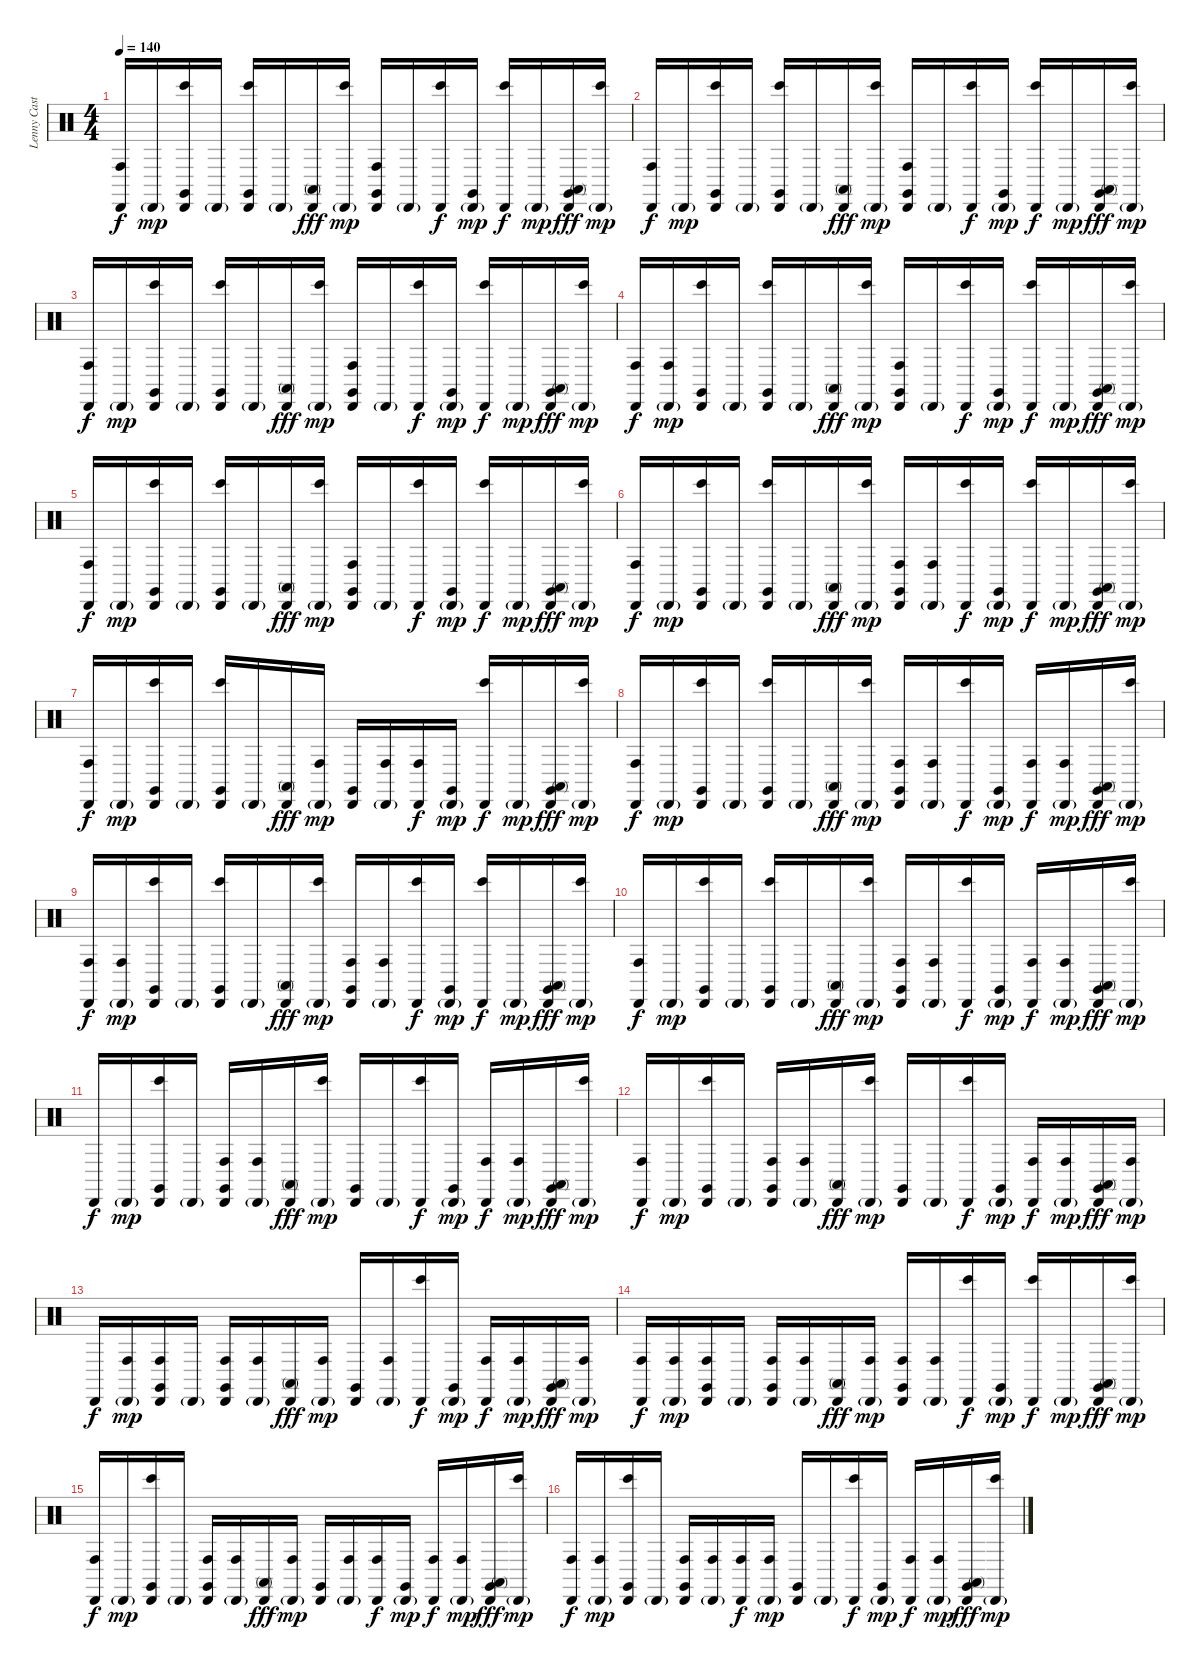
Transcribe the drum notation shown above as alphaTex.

\track ("Lenny Castro - Percussion" "Lenny Cast") {instrument percussion}
\staff {score}
\articulation defaults
\ts (4 4)
\tempo 140
\clef neutral
\ks c
("Cabasa (hit)" "Conga high (hit)").16{dy f} "Cabasa (hit)"{g}.16{dy mp} ("Claves (hit)" "Cabasa (hit)" "Bongo High (hit)").16 "Cabasa (hit)"{g}.16 ("Claves (hit)" "Cabasa (hit)" "Bongo High (hit)").16 "Cabasa (hit)"{g}.16 ("Cabasa (hit)" "Conga high (mute)").16{dy fff} ("Cabasa (hit)"{g} "Bongo High (hit)").16{dy mp} ("Claves (hit)" "Cabasa (hit)" "Conga high (hit)").16 "Cabasa (hit)"{g}.16 ("Cabasa (hit)" "Bongo High (hit)").16{dy f} ("Claves (hit)" "Cabasa (hit)"{g}).16{dy mp} ("Cabasa (hit)" "Bongo High (hit)").16{dy f} "Cabasa (hit)"{g}.16{dy mp} ("Claves (hit)" "Cabasa (hit)" "Conga high (mute)").16{dy fff} ("Cabasa (hit)"{g} "Bongo High (hit)").16{dy mp} |
("Cabasa (hit)" "Conga high (hit)").16{dy f} "Cabasa (hit)"{g}.16{dy mp} ("Claves (hit)" "Cabasa (hit)" "Bongo High (hit)").16 "Cabasa (hit)"{g}.16 ("Claves (hit)" "Cabasa (hit)" "Bongo High (hit)").16 "Cabasa (hit)"{g}.16 ("Cabasa (hit)" "Conga high (mute)").16{dy fff} ("Cabasa (hit)"{g} "Bongo High (hit)").16{dy mp} ("Claves (hit)" "Cabasa (hit)" "Conga high (hit)").16 "Cabasa (hit)"{g}.16 ("Cabasa (hit)" "Bongo High (hit)").16{dy f} ("Claves (hit)" "Cabasa (hit)"{g}).16{dy mp} ("Cabasa (hit)" "Bongo High (hit)").16{dy f} "Cabasa (hit)"{g}.16{dy mp} ("Claves (hit)" "Cabasa (hit)" "Conga high (mute)").16{dy fff} ("Cabasa (hit)"{g} "Bongo High (hit)").16{dy mp} |
("Cabasa (hit)" "Conga high (hit)").16{dy f} "Cabasa (hit)"{g}.16{dy mp} ("Claves (hit)" "Cabasa (hit)" "Bongo High (hit)").16 "Cabasa (hit)"{g}.16 ("Claves (hit)" "Cabasa (hit)" "Bongo High (hit)").16 "Cabasa (hit)"{g}.16 ("Cabasa (hit)" "Conga high (mute)").16{dy fff} ("Cabasa (hit)"{g} "Bongo High (hit)").16{dy mp} ("Claves (hit)" "Cabasa (hit)" "Conga high (hit)").16 "Cabasa (hit)"{g}.16 ("Cabasa (hit)" "Bongo High (hit)").16{dy f} ("Claves (hit)" "Cabasa (hit)"{g}).16{dy mp} ("Cabasa (hit)" "Bongo High (hit)").16{dy f} "Cabasa (hit)"{g}.16{dy mp} ("Claves (hit)" "Cabasa (hit)" "Conga high (mute)").16{dy fff} ("Cabasa (hit)"{g} "Bongo High (hit)").16{dy mp} |
("Cabasa (hit)" "Conga high (hit)").16{dy f} ("Cabasa (hit)"{g} "Conga high (hit)").16{dy mp} ("Claves (hit)" "Cabasa (hit)" "Bongo High (hit)").16 "Cabasa (hit)"{g}.16 ("Claves (hit)" "Cabasa (hit)" "Bongo High (hit)").16 "Cabasa (hit)"{g}.16 ("Cabasa (hit)" "Conga high (mute)").16{dy fff} ("Cabasa (hit)"{g} "Bongo High (hit)").16{dy mp} ("Claves (hit)" "Cabasa (hit)" "Conga high (hit)").16 "Cabasa (hit)"{g}.16 ("Cabasa (hit)" "Bongo High (hit)").16{dy f} ("Claves (hit)" "Cabasa (hit)"{g}).16{dy mp} ("Cabasa (hit)" "Bongo High (hit)").16{dy f} "Cabasa (hit)"{g}.16{dy mp} ("Claves (hit)" "Cabasa (hit)" "Conga high (mute)").16{dy fff} ("Cabasa (hit)"{g} "Bongo High (hit)").16{dy mp} |
("Cabasa (hit)" "Conga high (hit)").16{dy f} "Cabasa (hit)"{g}.16{dy mp} ("Claves (hit)" "Cabasa (hit)" "Bongo High (hit)").16 "Cabasa (hit)"{g}.16 ("Claves (hit)" "Cabasa (hit)" "Bongo High (hit)").16 "Cabasa (hit)"{g}.16 ("Cabasa (hit)" "Conga high (mute)").16{dy fff} ("Cabasa (hit)"{g} "Bongo High (hit)").16{dy mp} ("Claves (hit)" "Cabasa (hit)" "Conga high (hit)").16 "Cabasa (hit)"{g}.16 ("Cabasa (hit)" "Bongo High (hit)").16{dy f} ("Claves (hit)" "Cabasa (hit)"{g}).16{dy mp} ("Cabasa (hit)" "Bongo High (hit)").16{dy f} "Cabasa (hit)"{g}.16{dy mp} ("Claves (hit)" "Cabasa (hit)" "Conga high (mute)").16{dy fff} ("Cabasa (hit)"{g} "Bongo High (hit)").16{dy mp} |
("Cabasa (hit)" "Conga high (hit)").16{dy f} "Cabasa (hit)"{g}.16{dy mp} ("Claves (hit)" "Cabasa (hit)" "Bongo High (hit)").16 "Cabasa (hit)"{g}.16 ("Claves (hit)" "Cabasa (hit)" "Bongo High (hit)").16 "Cabasa (hit)"{g}.16 ("Cabasa (hit)" "Conga high (mute)").16{dy fff} ("Cabasa (hit)"{g} "Bongo High (hit)").16{dy mp} ("Claves (hit)" "Cabasa (hit)" "Conga high (hit)").16 ("Cabasa (hit)"{g} "Conga high (hit)").16 ("Cabasa (hit)" "Bongo High (hit)").16{dy f} ("Claves (hit)" "Cabasa (hit)"{g}).16{dy mp} ("Cabasa (hit)" "Bongo High (hit)").16{dy f} "Cabasa (hit)"{g}.16{dy mp} ("Claves (hit)" "Cabasa (hit)" "Conga high (mute)").16{dy fff} ("Cabasa (hit)"{g} "Bongo High (hit)").16{dy mp} |
("Cabasa (hit)" "Conga high (hit)").16{dy f} "Cabasa (hit)"{g}.16{dy mp} ("Claves (hit)" "Cabasa (hit)" "Bongo High (hit)").16 "Cabasa (hit)"{g}.16 ("Claves (hit)" "Cabasa (hit)" "Bongo High (hit)").16 "Cabasa (hit)"{g}.16 ("Cabasa (hit)" "Conga high (mute)").16{dy fff} ("Cabasa (hit)"{g} "Conga high (hit)").16{dy mp} ("Claves (hit)" "Cabasa (hit)").16 ("Cabasa (hit)"{g} "Conga high (hit)").16 ("Cabasa (hit)" "Conga high (hit)").16{dy f} ("Claves (hit)" "Cabasa (hit)"{g}).16{dy mp} ("Cabasa (hit)" "Bongo High (hit)").16{dy f} "Cabasa (hit)"{g}.16{dy mp} ("Claves (hit)" "Cabasa (hit)" "Conga high (mute)").16{dy fff} ("Cabasa (hit)"{g} "Bongo High (hit)").16{dy mp} |
("Cabasa (hit)" "Conga high (hit)").16{dy f} "Cabasa (hit)"{g}.16{dy mp} ("Claves (hit)" "Cabasa (hit)" "Bongo High (hit)").16 "Cabasa (hit)"{g}.16 ("Claves (hit)" "Cabasa (hit)" "Bongo High (hit)").16 "Cabasa (hit)"{g}.16 ("Cabasa (hit)" "Conga high (mute)").16{dy fff} ("Cabasa (hit)"{g} "Bongo High (hit)").16{dy mp} ("Claves (hit)" "Cabasa (hit)" "Conga high (hit)").16 ("Cabasa (hit)"{g} "Conga high (hit)").16 ("Cabasa (hit)" "Bongo High (hit)").16{dy f} ("Claves (hit)" "Cabasa (hit)"{g}).16{dy mp} ("Cabasa (hit)" "Conga high (hit)").16{dy f} ("Cabasa (hit)"{g} "Conga high (hit)").16{dy mp} ("Claves (hit)" "Cabasa (hit)" "Conga high (mute)").16{dy fff} ("Cabasa (hit)"{g} "Bongo High (hit)").16{dy mp} |
("Cabasa (hit)" "Conga high (hit)").16{dy f} ("Cabasa (hit)"{g} "Conga high (hit)").16{dy mp} ("Claves (hit)" "Cabasa (hit)" "Bongo High (hit)").16 "Cabasa (hit)"{g}.16 ("Claves (hit)" "Cabasa (hit)" "Bongo High (hit)").16 "Cabasa (hit)"{g}.16 ("Cabasa (hit)" "Conga high (mute)").16{dy fff} ("Cabasa (hit)"{g} "Bongo High (hit)").16{dy mp} ("Claves (hit)" "Cabasa (hit)" "Conga high (hit)").16 ("Cabasa (hit)"{g} "Conga high (hit)").16 ("Cabasa (hit)" "Bongo High (hit)").16{dy f} ("Claves (hit)" "Cabasa (hit)"{g}).16{dy mp} ("Cabasa (hit)" "Bongo High (hit)").16{dy f} "Cabasa (hit)"{g}.16{dy mp} ("Claves (hit)" "Cabasa (hit)" "Conga high (mute)").16{dy fff} ("Cabasa (hit)"{g} "Bongo High (hit)").16{dy mp} |
("Cabasa (hit)" "Conga high (hit)").16{dy f} "Cabasa (hit)"{g}.16{dy mp} ("Claves (hit)" "Cabasa (hit)" "Bongo High (hit)").16 "Cabasa (hit)"{g}.16 ("Claves (hit)" "Cabasa (hit)" "Bongo High (hit)").16 "Cabasa (hit)"{g}.16 ("Cabasa (hit)" "Conga high (mute)").16{dy fff} ("Cabasa (hit)"{g} "Bongo High (hit)").16{dy mp} ("Claves (hit)" "Cabasa (hit)" "Conga high (hit)").16 ("Cabasa (hit)"{g} "Conga high (hit)").16 ("Cabasa (hit)" "Bongo High (hit)").16{dy f} ("Claves (hit)" "Cabasa (hit)"{g}).16{dy mp} ("Cabasa (hit)" "Conga high (hit)").16{dy f} ("Cabasa (hit)"{g} "Conga high (hit)").16{dy mp} ("Claves (hit)" "Cabasa (hit)" "Conga high (mute)").16{dy fff} ("Cabasa (hit)"{g} "Bongo High (hit)").16{dy mp} |
"Cabasa (hit)".16{dy f} "Cabasa (hit)"{g}.16{dy mp} ("Claves (hit)" "Cabasa (hit)" "Bongo High (hit)").16 "Cabasa (hit)"{g}.16 ("Claves (hit)" "Cabasa (hit)" "Conga high (hit)").16 ("Cabasa (hit)"{g} "Conga high (hit)").16 ("Cabasa (hit)" "Conga high (mute)").16{dy fff} ("Cabasa (hit)"{g} "Bongo High (hit)").16{dy mp} ("Claves (hit)" "Cabasa (hit)").16 "Cabasa (hit)"{g}.16 ("Cabasa (hit)" "Bongo High (hit)").16{dy f} ("Claves (hit)" "Cabasa (hit)"{g}).16{dy mp} ("Cabasa (hit)" "Conga high (hit)").16{dy f} ("Cabasa (hit)"{g} "Conga high (hit)").16{dy mp} ("Claves (hit)" "Cabasa (hit)" "Conga high (mute)").16{dy fff} ("Cabasa (hit)"{g} "Bongo High (hit)").16{dy mp} |
("Cabasa (hit)" "Conga high (hit)").16{dy f} "Cabasa (hit)"{g}.16{dy mp} ("Claves (hit)" "Cabasa (hit)" "Bongo High (hit)").16 "Cabasa (hit)"{g}.16 ("Claves (hit)" "Cabasa (hit)" "Conga high (hit)").16 ("Cabasa (hit)"{g} "Conga high (hit)").16 ("Cabasa (hit)" "Conga high (mute)").16{dy fff} ("Cabasa (hit)"{g} "Bongo High (hit)").16{dy mp} ("Claves (hit)" "Cabasa (hit)").16 "Cabasa (hit)"{g}.16 ("Cabasa (hit)" "Bongo High (hit)").16{dy f} ("Claves (hit)" "Cabasa (hit)"{g}).16{dy mp} ("Cabasa (hit)" "Conga high (hit)").16{dy f} ("Cabasa (hit)"{g} "Conga high (hit)").16{dy mp} ("Claves (hit)" "Cabasa (hit)" "Conga high (mute)").16{dy fff} ("Cabasa (hit)"{g} "Conga high (hit)").16{dy mp} |
"Cabasa (hit)".16{dy f} ("Cabasa (hit)"{g} "Conga high (hit)").16{dy mp} ("Claves (hit)" "Cabasa (hit)" "Conga high (hit)").16 "Cabasa (hit)"{g}.16 ("Claves (hit)" "Cabasa (hit)" "Conga high (hit)").16 ("Cabasa (hit)"{g} "Conga high (hit)").16 ("Cabasa (hit)" "Conga high (mute)").16{dy fff} ("Cabasa (hit)"{g} "Conga high (hit)").16{dy mp} ("Claves (hit)" "Cabasa (hit)").16 ("Cabasa (hit)"{g} "Conga high (hit)").16 ("Cabasa (hit)" "Bongo High (hit)").16{dy f} ("Claves (hit)" "Cabasa (hit)"{g}).16{dy mp} ("Cabasa (hit)" "Conga high (hit)").16{dy f} ("Cabasa (hit)"{g} "Conga high (hit)").16{dy mp} ("Claves (hit)" "Cabasa (hit)" "Conga high (mute)").16{dy fff} ("Cabasa (hit)"{g} "Conga high (hit)").16{dy mp} |
("Cabasa (hit)" "Conga high (hit)").16{dy f} ("Cabasa (hit)"{g} "Conga high (hit)").16{dy mp} ("Claves (hit)" "Cabasa (hit)" "Conga high (hit)").16 "Cabasa (hit)"{g}.16 ("Claves (hit)" "Cabasa (hit)" "Conga high (hit)").16 ("Cabasa (hit)"{g} "Conga high (hit)").16 ("Cabasa (hit)" "Conga high (mute)").16{dy fff} ("Cabasa (hit)"{g} "Conga high (hit)").16{dy mp} ("Claves (hit)" "Cabasa (hit)" "Conga high (hit)").16 ("Cabasa (hit)"{g} "Conga high (hit)").16 ("Cabasa (hit)" "Bongo High (hit)").16{dy f} ("Claves (hit)" "Cabasa (hit)"{g}).16{dy mp} ("Cabasa (hit)" "Bongo High (hit)").16{dy f} "Cabasa (hit)"{g}.16{dy mp} ("Claves (hit)" "Cabasa (hit)" "Conga high (mute)").16{dy fff} ("Cabasa (hit)"{g} "Bongo High (hit)").16{dy mp} |
("Cabasa (hit)" "Conga high (hit)").16{dy f} "Cabasa (hit)"{g}.16{dy mp} ("Claves (hit)" "Cabasa (hit)" "Bongo High (hit)").16 "Cabasa (hit)"{g}.16 ("Claves (hit)" "Cabasa (hit)" "Conga high (hit)").16 ("Cabasa (hit)"{g} "Conga high (hit)").16 ("Cabasa (hit)" "Conga high (mute)").16{dy fff} ("Cabasa (hit)"{g} "Conga high (hit)").16{dy mp} ("Claves (hit)" "Cabasa (hit)").16 ("Cabasa (hit)"{g} "Conga high (hit)").16 ("Cabasa (hit)" "Conga high (hit)").16{dy f} ("Claves (hit)" "Cabasa (hit)"{g}).16{dy mp} ("Cabasa (hit)" "Conga high (hit)").16{dy f} ("Cabasa (hit)"{g} "Conga high (hit)").16{dy mp} ("Claves (hit)" "Cabasa (hit)" "Conga high (mute)").16{dy fff} ("Cabasa (hit)"{g} "Bongo High (hit)").16{dy mp} |
("Cabasa (hit)" "Conga high (hit)").16{dy f} ("Cabasa (hit)"{g} "Conga high (hit)").16{dy mp} ("Claves (hit)" "Cabasa (hit)" "Bongo High (hit)").16 "Cabasa (hit)"{g}.16 ("Claves (hit)" "Cabasa (hit)" "Conga high (hit)").16 ("Cabasa (hit)"{g} "Conga high (hit)").16 ("Cabasa (hit)" "Conga high (hit)").16{dy f} ("Cabasa (hit)"{g} "Conga high (hit)").16{dy mp} ("Claves (hit)" "Cabasa (hit)").16 "Cabasa (hit)"{g}.16 ("Cabasa (hit)" "Bongo High (hit)").16{dy f} ("Claves (hit)" "Cabasa (hit)"{g}).16{dy mp} ("Cabasa (hit)" "Conga high (hit)").16{dy f} ("Cabasa (hit)"{g} "Conga high (hit)").16{dy mp} ("Claves (hit)" "Cabasa (hit)" "Conga high (mute)").16{dy fff} ("Cabasa (hit)"{g} "Bongo High (hit)").16{dy mp}
